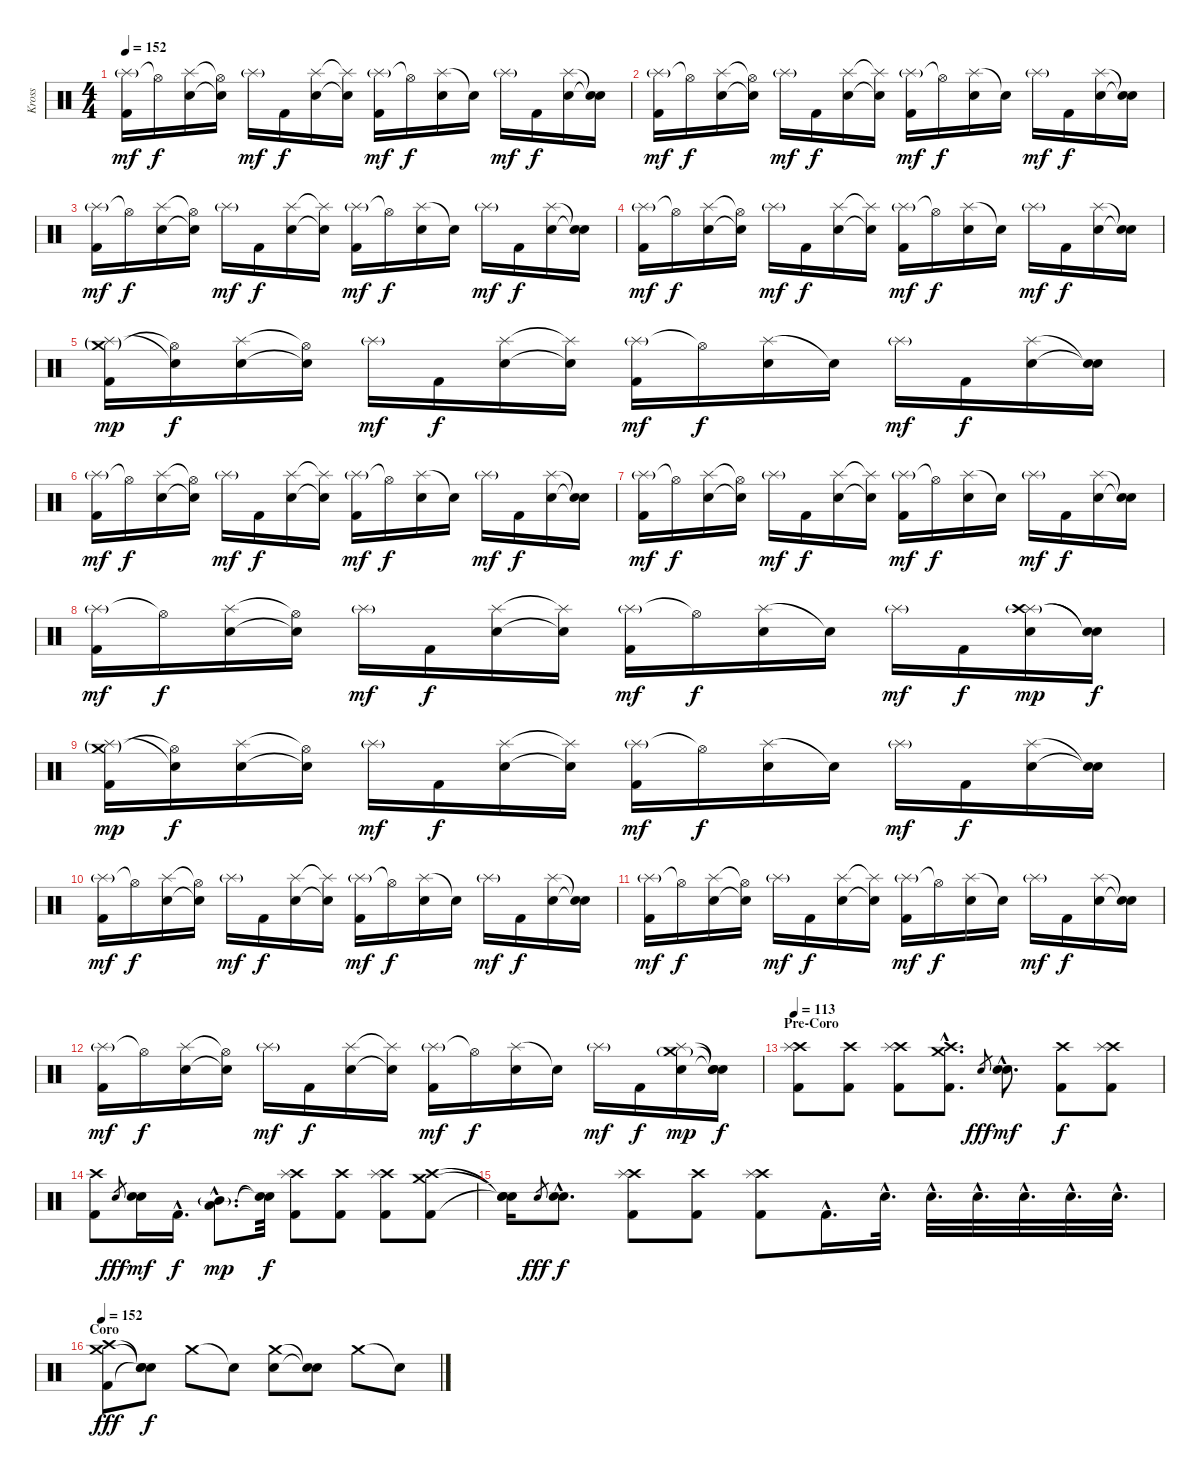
\track ("Kross" "Kross") {instrument percussion}
\staff {score}
\articulation defaults
\ts (4 4)
\tempo 152
\clef neutral
\ks c
("Splash (hit)"{g} "Kick (hit) 2").16{dy mf} "Hi-Hat (open)"{t}.16{dy f} ("Splash (hit)" "Electric Snare (hit)").16 ("Hi-Hat (open)"{t} "Electric Snare (hit)"{t}).16 "Splash (hit)"{g}.16{dy mf} "Kick (hit) 2".16{dy f} ("Splash (hit)" "Electric Snare (hit)").16 ("Splash (hit)"{t} "Electric Snare (hit)"{t}).16 ("Splash (hit)"{g} "Kick (hit) 2").16{dy mf} "Hi-Hat (open)"{t}.16{dy f} ("Splash (hit)" "Electric Snare (hit)").16 "Snare (hit)"{t}.16 "Splash (hit)"{g}.16{dy mf} "Kick (hit) 2".16{dy f} ("Splash (hit)" "Electric Snare (hit)").16 ("Snare (hit)"{t} "Snare (hit)"{t}).16 |
("Splash (hit)"{g} "Kick (hit) 2").16{dy mf} "Hi-Hat (open)"{t}.16{dy f} ("Splash (hit)" "Electric Snare (hit)").16 ("Hi-Hat (open)"{t} "Electric Snare (hit)"{t}).16 "Splash (hit)"{g}.16{dy mf} "Kick (hit) 2".16{dy f} ("Splash (hit)" "Electric Snare (hit)").16 ("Splash (hit)"{t} "Electric Snare (hit)"{t}).16 ("Splash (hit)"{g} "Kick (hit) 2").16{dy mf} "Hi-Hat (open)"{t}.16{dy f} ("Splash (hit)" "Electric Snare (hit)").16 "Snare (hit)"{t}.16 "Splash (hit)"{g}.16{dy mf} "Kick (hit) 2".16{dy f} ("Splash (hit)" "Electric Snare (hit)").16 ("Snare (hit)"{t} "Snare (hit)"{t}).16 |
("Splash (hit)"{g} "Kick (hit) 2").16{dy mf} "Hi-Hat (open)"{t}.16{dy f} ("Splash (hit)" "Electric Snare (hit)").16 ("Hi-Hat (open)"{t} "Electric Snare (hit)"{t}).16 "Splash (hit)"{g}.16{dy mf} "Kick (hit) 2".16{dy f} ("Splash (hit)" "Electric Snare (hit)").16 ("Splash (hit)"{t} "Electric Snare (hit)"{t}).16 ("Splash (hit)"{g} "Kick (hit) 2").16{dy mf} "Hi-Hat (open)"{t}.16{dy f} ("Splash (hit)" "Electric Snare (hit)").16 "Snare (hit)"{t}.16 "Splash (hit)"{g}.16{dy mf} "Kick (hit) 2".16{dy f} ("Splash (hit)" "Electric Snare (hit)").16 ("Snare (hit)"{t} "Snare (hit)"{t}).16 |
("Splash (hit)"{g} "Kick (hit) 2").16{dy mf} "Hi-Hat (open)"{t}.16{dy f} ("Splash (hit)" "Electric Snare (hit)").16 ("Hi-Hat (open)"{t} "Electric Snare (hit)"{t}).16 "Splash (hit)"{g}.16{dy mf} "Kick (hit) 2".16{dy f} ("Splash (hit)" "Electric Snare (hit)").16 ("Splash (hit)"{t} "Electric Snare (hit)"{t}).16 ("Splash (hit)"{g} "Kick (hit) 2").16{dy mf} "Hi-Hat (open)"{t}.16{dy f} ("Splash (hit)" "Electric Snare (hit)").16 "Snare (hit)"{t}.16 "Splash (hit)"{g}.16{dy mf} "Kick (hit) 2".16{dy f} ("Splash (hit)" "Electric Snare (hit)").16 ("Snare (hit)"{t} "Snare (hit)"{t}).16 |
("Crash medium (hit)"{g} "Splash (hit)"{g} "Kick (hit) 2").16{dy mp} ("Hi-Hat (open)"{t} "Snare (hit)"{t}).16{dy f} ("Splash (hit)" "Electric Snare (hit)").16 ("Hi-Hat (open)"{t} "Electric Snare (hit)"{t}).16 "Splash (hit)"{g}.16{dy mf} "Kick (hit) 2".16{dy f} ("Splash (hit)" "Electric Snare (hit)").16 ("Splash (hit)"{t} "Electric Snare (hit)"{t}).16 ("Splash (hit)"{g} "Kick (hit) 2").16{dy mf} "Hi-Hat (open)"{t}.16{dy f} ("Splash (hit)" "Electric Snare (hit)").16 "Snare (hit)"{t}.16 "Splash (hit)"{g}.16{dy mf} "Kick (hit) 2".16{dy f} ("Splash (hit)" "Electric Snare (hit)").16 ("Snare (hit)"{t} "Snare (hit)"{t}).16 |
("Splash (hit)"{g} "Kick (hit) 2").16{dy mf} "Hi-Hat (open)"{t}.16{dy f} ("Splash (hit)" "Electric Snare (hit)").16 ("Hi-Hat (open)"{t} "Electric Snare (hit)"{t}).16 "Splash (hit)"{g}.16{dy mf} "Kick (hit) 2".16{dy f} ("Splash (hit)" "Electric Snare (hit)").16 ("Splash (hit)"{t} "Electric Snare (hit)"{t}).16 ("Splash (hit)"{g} "Kick (hit) 2").16{dy mf} "Hi-Hat (open)"{t}.16{dy f} ("Splash (hit)" "Electric Snare (hit)").16 "Snare (hit)"{t}.16 "Splash (hit)"{g}.16{dy mf} "Kick (hit) 2".16{dy f} ("Splash (hit)" "Electric Snare (hit)").16 ("Snare (hit)"{t} "Snare (hit)"{t}).16 |
("Splash (hit)"{g} "Kick (hit) 2").16{dy mf} "Hi-Hat (open)"{t}.16{dy f} ("Splash (hit)" "Electric Snare (hit)").16 ("Hi-Hat (open)"{t} "Electric Snare (hit)"{t}).16 "Splash (hit)"{g}.16{dy mf} "Kick (hit) 2".16{dy f} ("Splash (hit)" "Electric Snare (hit)").16 ("Splash (hit)"{t} "Electric Snare (hit)"{t}).16 ("Splash (hit)"{g} "Kick (hit) 2").16{dy mf} "Hi-Hat (open)"{t}.16{dy f} ("Splash (hit)" "Electric Snare (hit)").16 "Snare (hit)"{t}.16 "Splash (hit)"{g}.16{dy mf} "Kick (hit) 2".16{dy f} ("Splash (hit)" "Electric Snare (hit)").16 ("Snare (hit)"{t} "Snare (hit)"{t}).16 |
("Splash (hit)"{g} "Kick (hit) 2").16{dy mf} "Hi-Hat (open)"{t}.16{dy f} ("Splash (hit)" "Electric Snare (hit)").16 ("Hi-Hat (open)"{t} "Electric Snare (hit)"{t}).16 "Splash (hit)"{g}.16{dy mf} "Kick (hit) 2".16{dy f} ("Splash (hit)" "Electric Snare (hit)").16 ("Splash (hit)"{t} "Electric Snare (hit)"{t}).16 ("Splash (hit)"{g} "Kick (hit) 2").16{dy mf} "Hi-Hat (open)"{t}.16{dy f} ("Splash (hit)" "Electric Snare (hit)").16 "Snare (hit)"{t}.16 "Splash (hit)"{g}.16{dy mf} "Kick (hit) 2".16{dy f} ("Splash (hit)" "Crash high (hit)"{g} "Electric Snare (hit)").16{dy mp} ("Snare (hit)"{t} "Snare (hit)"{t}).16{dy f} |
("Crash medium (hit)"{g} "Splash (hit)"{g} "Kick (hit) 2").16{dy mp} ("Hi-Hat (open)"{t} "Snare (hit)"{t}).16{dy f} ("Splash (hit)" "Electric Snare (hit)").16 ("Hi-Hat (open)"{t} "Electric Snare (hit)"{t}).16 "Splash (hit)"{g}.16{dy mf} "Kick (hit) 2".16{dy f} ("Splash (hit)" "Electric Snare (hit)").16 ("Splash (hit)"{t} "Electric Snare (hit)"{t}).16 ("Splash (hit)"{g} "Kick (hit) 2").16{dy mf} "Hi-Hat (open)"{t}.16{dy f} ("Splash (hit)" "Electric Snare (hit)").16 "Snare (hit)"{t}.16 "Splash (hit)"{g}.16{dy mf} "Kick (hit) 2".16{dy f} ("Splash (hit)" "Electric Snare (hit)").16 ("Snare (hit)"{t} "Snare (hit)"{t}).16 |
("Splash (hit)"{g} "Kick (hit) 2").16{dy mf} "Hi-Hat (open)"{t}.16{dy f} ("Splash (hit)" "Electric Snare (hit)").16 ("Hi-Hat (open)"{t} "Electric Snare (hit)"{t}).16 "Splash (hit)"{g}.16{dy mf} "Kick (hit) 2".16{dy f} ("Splash (hit)" "Electric Snare (hit)").16 ("Splash (hit)"{t} "Electric Snare (hit)"{t}).16 ("Splash (hit)"{g} "Kick (hit) 2").16{dy mf} "Hi-Hat (open)"{t}.16{dy f} ("Splash (hit)" "Electric Snare (hit)").16 "Snare (hit)"{t}.16 "Splash (hit)"{g}.16{dy mf} "Kick (hit) 2".16{dy f} ("Splash (hit)" "Electric Snare (hit)").16 ("Snare (hit)"{t} "Snare (hit)"{t}).16 |
("Splash (hit)"{g} "Kick (hit) 2").16{dy mf} "Hi-Hat (open)"{t}.16{dy f} ("Splash (hit)" "Electric Snare (hit)").16 ("Hi-Hat (open)"{t} "Electric Snare (hit)"{t}).16 "Splash (hit)"{g}.16{dy mf} "Kick (hit) 2".16{dy f} ("Splash (hit)" "Electric Snare (hit)").16 ("Splash (hit)"{t} "Electric Snare (hit)"{t}).16 ("Splash (hit)"{g} "Kick (hit) 2").16{dy mf} "Hi-Hat (open)"{t}.16{dy f} ("Splash (hit)" "Electric Snare (hit)").16 "Snare (hit)"{t}.16 "Splash (hit)"{g}.16{dy mf} "Kick (hit) 2".16{dy f} ("Splash (hit)" "Electric Snare (hit)").16 ("Snare (hit)"{t} "Snare (hit)"{t}).16 |
("Splash (hit)"{g} "Kick (hit) 2").16{dy mf} "Hi-Hat (open)"{t}.16{dy f} ("Splash (hit)" "Electric Snare (hit)").16 ("Hi-Hat (open)"{t} "Electric Snare (hit)"{t}).16 "Splash (hit)"{g}.16{dy mf} "Kick (hit) 2".16{dy f} ("Splash (hit)" "Electric Snare (hit)").16 ("Splash (hit)"{t} "Electric Snare (hit)"{t}).16 ("Splash (hit)"{g} "Kick (hit) 2").16{dy mf} "Hi-Hat (open)"{t}.16{dy f} ("Splash (hit)" "Electric Snare (hit)").16 "Snare (hit)"{t}.16 "Splash (hit)"{g}.16{dy mf} "Kick (hit) 2".16{dy f} ("Splash (hit)" "Crash medium (hit)"{g} "Electric Snare (hit)").16{dy mp} ("Snare (hit)"{t} "Snare (hit)"{t} "Snare (hit)"{t}).16{dy f} |
\section ("" "Pre-Coro ")
\tempo 113
("Crash high (hit)" "Splash (hit)" "Kick (hit) 2").8 ("Crash high (hit)" "Kick (hit) 2").8 ("Crash high (hit)" "Splash (hit)" "Kick (hit) 2").8 ("Crash high (hit)"{hac} "Crash medium (hit)"{hac} "Kick (hit) 2"{hac}).8{d} "Electric Snare (hit)".8{gr dy fff} ("Electric Snare (hit)"{hac} "Electric Snare (hit)"{hac}).8{d dy mf} ("Crash high (hit)" "Kick (hit) 2").8{dy f} ("Crash high (hit)" "Splash (hit)" "Kick (hit) 2").8 |
("Crash high (hit)" "Kick (hit) 2").8 "Electric Snare (hit)".8{gr dy fff} ("Electric Snare (hit)" "Electric Snare (hit)").16{dy mf} "Kick (hit) 2"{hac}.16{d dy f} ("Low Tom (hit)"{hac} "Mid Tom (hit)"{g hac}).8{d dy mp} ("Snare (hit)"{t} "Snare (hit)"{t}).32{dy f} ("Crash high (hit)" "Splash (hit)" "Kick (hit) 2").8 ("Crash high (hit)" "Kick (hit) 2").8 ("Crash high (hit)" "Splash (hit)" "Kick (hit) 2").8 ("Crash high (hit)" "Crash medium (hit)" "Kick (hit) 2").8 |
("Snare (hit)"{t} "Snare (hit)"{t} "Snare (hit)"{t}).16 "Electric Snare (hit)".8{gr dy fff} ("Electric Snare (hit)"{hac} "Electric Snare (hit)"{hac}).8{d dy f} ("Crash high (hit)" "Splash (hit)" "Kick (hit) 2").8 ("Crash high (hit)" "Kick (hit) 2").8 ("Crash high (hit)" "Splash (hit)" "Kick (hit) 2").8 "Kick (hit) 2"{hac}.16{d} "Electric Snare (hit)"{hac}.32{d} "Electric Snare (hit)"{hac}.32{d} "Electric Snare (hit)"{hac}.32{d} "Electric Snare (hit)"{hac}.32{d} "Electric Snare (hit)"{hac}.32{d} "Electric Snare (hit)"{hac}.32{d} |
\section ("" "Coro ")
\tempo 152
("Crash medium (hit)" "Crash high (hit)" "Kick (hit) 2").8{dy fff} ("Snare (hit)"{t} "Snare (hit)"{t} "Snare (hit)"{t}).8{dy f} "Crash medium (hit)".8 "Snare (hit)"{t}.8 ("Crash medium (hit)" "Electric Snare (hit)").8 ("Snare (hit)"{t} "Snare (hit)"{t}).8 "Crash medium (hit)".8 "Snare (hit)"{t}.8
